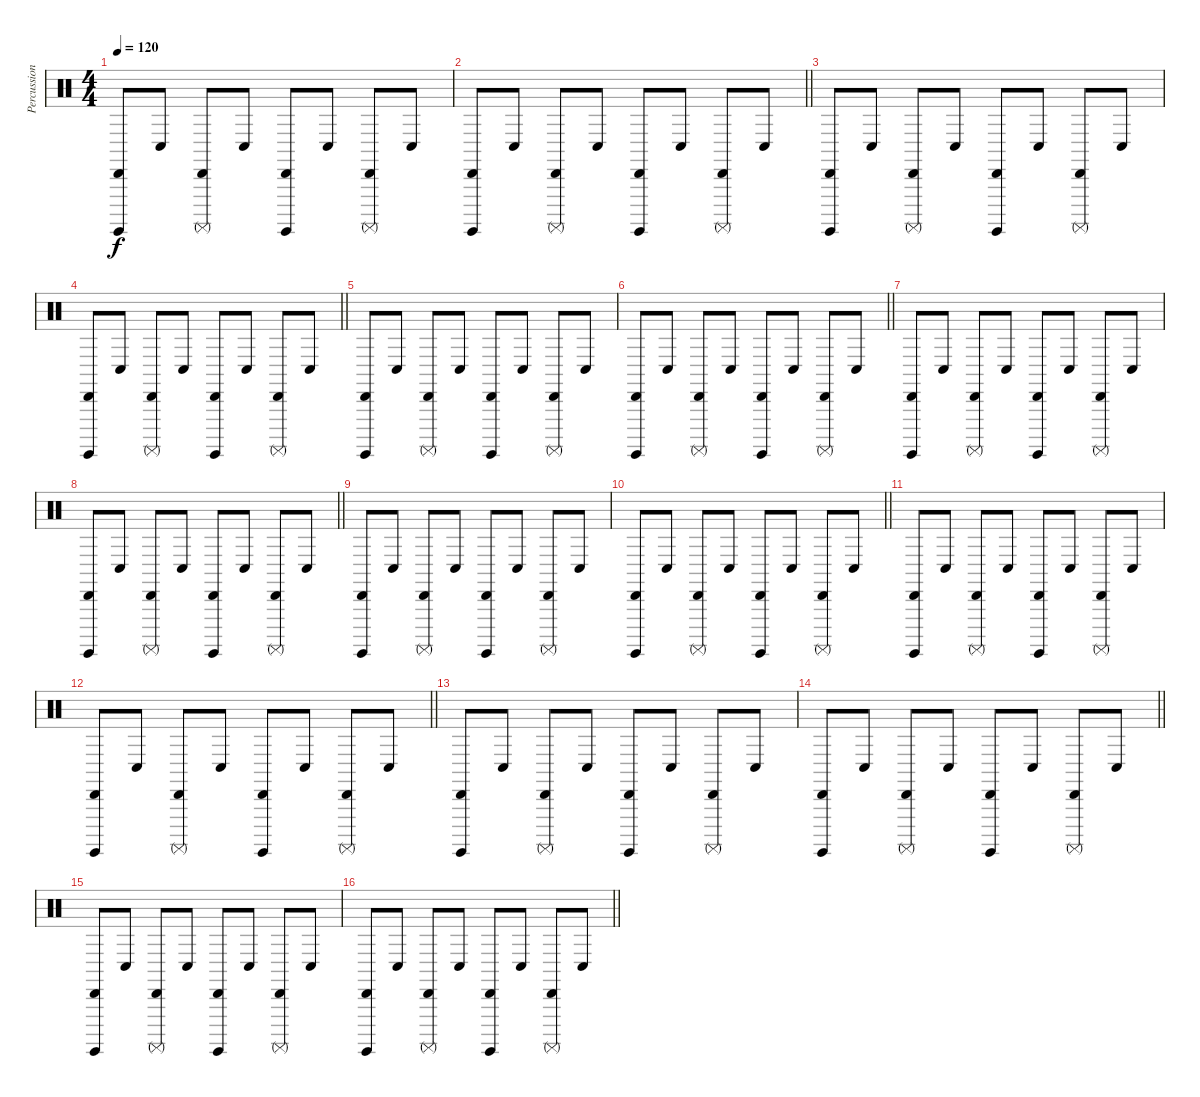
\track ("Percussion" "Percussion") {instrument percussion}
\staff {score}
\articulation defaults
\ts (4 4)
\tempo 120
\clef neutral
\ks c
("Surdo (hit)" "Cabasa (hit)").8{dy f} "Conga low (hit)".8 ("Surdo (mute)" "Cabasa (hit)").8 "Conga low (hit)".8 ("Surdo (hit)" "Cabasa (hit)").8 "Conga low (hit)".8 ("Surdo (mute)" "Cabasa (hit)").8 "Conga low (hit)".8 |
\barLineRight lightlight
("Surdo (hit)" "Cabasa (hit)").8 "Conga low (hit)".8 ("Surdo (mute)" "Cabasa (hit)").8 "Conga low (hit)".8 ("Surdo (hit)" "Cabasa (hit)").8 "Conga low (hit)".8 ("Surdo (mute)" "Cabasa (hit)").8 "Conga low (hit)".8 |
("Surdo (hit)" "Cabasa (hit)").8 "Conga low (hit)".8 ("Surdo (mute)" "Cabasa (hit)").8 "Conga low (hit)".8 ("Surdo (hit)" "Cabasa (hit)").8 "Conga low (hit)".8 ("Surdo (mute)" "Cabasa (hit)").8 "Conga low (hit)".8 |
\barLineRight lightlight
("Surdo (hit)" "Cabasa (hit)").8 "Conga low (hit)".8 ("Surdo (mute)" "Cabasa (hit)").8 "Conga low (hit)".8 ("Surdo (hit)" "Cabasa (hit)").8 "Conga low (hit)".8 ("Surdo (mute)" "Cabasa (hit)").8 "Conga low (hit)".8 |
("Surdo (hit)" "Cabasa (hit)").8 "Conga low (hit)".8 ("Surdo (mute)" "Cabasa (hit)").8 "Conga low (hit)".8 ("Surdo (hit)" "Cabasa (hit)").8 "Conga low (hit)".8 ("Surdo (mute)" "Cabasa (hit)").8 "Conga low (hit)".8 |
\barLineRight lightlight
("Surdo (hit)" "Cabasa (hit)").8 "Conga low (hit)".8 ("Surdo (mute)" "Cabasa (hit)").8 "Conga low (hit)".8 ("Surdo (hit)" "Cabasa (hit)").8 "Conga low (hit)".8 ("Surdo (mute)" "Cabasa (hit)").8 "Conga low (hit)".8 |
("Surdo (hit)" "Cabasa (hit)").8 "Conga low (hit)".8 ("Surdo (mute)" "Cabasa (hit)").8 "Conga low (hit)".8 ("Surdo (hit)" "Cabasa (hit)").8 "Conga low (hit)".8 ("Surdo (mute)" "Cabasa (hit)").8 "Conga low (hit)".8 |
\barLineRight lightlight
("Surdo (hit)" "Cabasa (hit)").8 "Conga low (hit)".8 ("Surdo (mute)" "Cabasa (hit)").8 "Conga low (hit)".8 ("Surdo (hit)" "Cabasa (hit)").8 "Conga low (hit)".8 ("Surdo (mute)" "Cabasa (hit)").8 "Conga low (hit)".8 |
("Surdo (hit)" "Cabasa (hit)").8 "Conga low (hit)".8 ("Surdo (mute)" "Cabasa (hit)").8 "Conga low (hit)".8 ("Surdo (hit)" "Cabasa (hit)").8 "Conga low (hit)".8 ("Surdo (mute)" "Cabasa (hit)").8 "Conga low (hit)".8 |
\barLineRight lightlight
("Surdo (hit)" "Cabasa (hit)").8 "Conga low (hit)".8 ("Surdo (mute)" "Cabasa (hit)").8 "Conga low (hit)".8 ("Surdo (hit)" "Cabasa (hit)").8 "Conga low (hit)".8 ("Surdo (mute)" "Cabasa (hit)").8 "Conga low (hit)".8 |
("Surdo (hit)" "Cabasa (hit)").8 "Conga low (hit)".8 ("Surdo (mute)" "Cabasa (hit)").8 "Conga low (hit)".8 ("Surdo (hit)" "Cabasa (hit)").8 "Conga low (hit)".8 ("Surdo (mute)" "Cabasa (hit)").8 "Conga low (hit)".8 |
\barLineRight lightlight
("Surdo (hit)" "Cabasa (hit)").8 "Conga low (hit)".8 ("Surdo (mute)" "Cabasa (hit)").8 "Conga low (hit)".8 ("Surdo (hit)" "Cabasa (hit)").8 "Conga low (hit)".8 ("Surdo (mute)" "Cabasa (hit)").8 "Conga low (hit)".8 |
("Surdo (hit)" "Cabasa (hit)").8 "Conga low (hit)".8 ("Surdo (mute)" "Cabasa (hit)").8 "Conga low (hit)".8 ("Surdo (hit)" "Cabasa (hit)").8 "Conga low (hit)".8 ("Surdo (mute)" "Cabasa (hit)").8 "Conga low (hit)".8 |
\barLineRight lightlight
("Surdo (hit)" "Cabasa (hit)").8 "Conga low (hit)".8 ("Surdo (mute)" "Cabasa (hit)").8 "Conga low (hit)".8 ("Surdo (hit)" "Cabasa (hit)").8 "Conga low (hit)".8 ("Surdo (mute)" "Cabasa (hit)").8 "Conga low (hit)".8 |
("Surdo (hit)" "Cabasa (hit)").8 "Conga low (hit)".8 ("Surdo (mute)" "Cabasa (hit)").8 "Conga low (hit)".8 ("Surdo (hit)" "Cabasa (hit)").8 "Conga low (hit)".8 ("Surdo (mute)" "Cabasa (hit)").8 "Conga low (hit)".8 |
\barLineRight lightlight
("Surdo (hit)" "Cabasa (hit)").8 "Conga low (hit)".8 ("Surdo (mute)" "Cabasa (hit)").8 "Conga low (hit)".8 ("Surdo (hit)" "Cabasa (hit)").8 "Conga low (hit)".8 ("Surdo (mute)" "Cabasa (hit)").8 "Conga low (hit)".8
